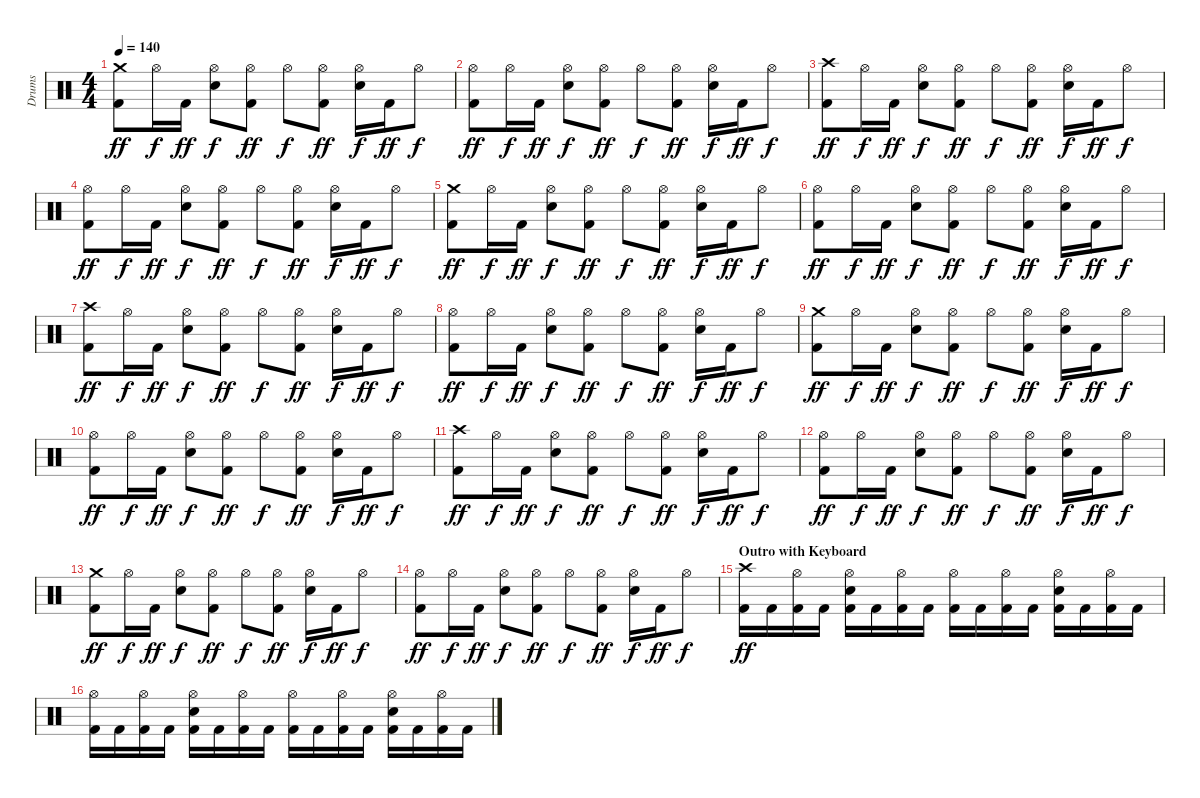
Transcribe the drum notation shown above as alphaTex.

\track ("Drums" "Drums") {instrument percussion}
\staff {score}
\articulation defaults
\ts (4 4)
\tempo 140
\clef neutral
\ks c
("Crash medium (hit)" "Kick (hit) 2").8{dy ff} "Hi-Hat (open)".16{dy f} "Kick (hit) 2".16{dy ff} ("Hi-Hat (open)" "Electric Snare (hit)").8{dy f} ("Hi-Hat (open)" "Kick (hit) 2").8{dy ff} "Hi-Hat (open)".8{dy f} ("Hi-Hat (open)" "Kick (hit) 2").8{dy ff} ("Hi-Hat (open)" "Electric Snare (hit)").16{dy f} "Kick (hit) 2".16{dy ff} "Hi-Hat (open)".8{dy f} |
("Hi-Hat (open)" "Kick (hit) 2").8{dy ff} "Hi-Hat (open)".16{dy f} "Kick (hit) 2".16{dy ff} ("Hi-Hat (open)" "Electric Snare (hit)").8{dy f} ("Hi-Hat (open)" "Kick (hit) 2").8{dy ff} "Hi-Hat (open)".8{dy f} ("Hi-Hat (open)" "Kick (hit) 2").8{dy ff} ("Hi-Hat (open)" "Electric Snare (hit)").16{dy f} "Kick (hit) 2".16{dy ff} "Hi-Hat (open)".8{dy f} |
("Crash high (hit)" "Kick (hit) 2").8{dy ff} "Hi-Hat (open)".16{dy f} "Kick (hit) 2".16{dy ff} ("Hi-Hat (open)" "Electric Snare (hit)").8{dy f} ("Hi-Hat (open)" "Kick (hit) 2").8{dy ff} "Hi-Hat (open)".8{dy f} ("Hi-Hat (open)" "Kick (hit) 2").8{dy ff} ("Hi-Hat (open)" "Electric Snare (hit)").16{dy f} "Kick (hit) 2".16{dy ff} "Hi-Hat (open)".8{dy f} |
("Hi-Hat (open)" "Kick (hit) 2").8{dy ff} "Hi-Hat (open)".16{dy f} "Kick (hit) 2".16{dy ff} ("Hi-Hat (open)" "Electric Snare (hit)").8{dy f} ("Hi-Hat (open)" "Kick (hit) 2").8{dy ff} "Hi-Hat (open)".8{dy f} ("Hi-Hat (open)" "Kick (hit) 2").8{dy ff} ("Hi-Hat (open)" "Electric Snare (hit)").16{dy f} "Kick (hit) 2".16{dy ff} "Hi-Hat (open)".8{dy f} |
("Crash medium (hit)" "Kick (hit) 2").8{dy ff} "Hi-Hat (open)".16{dy f} "Kick (hit) 2".16{dy ff} ("Hi-Hat (open)" "Electric Snare (hit)").8{dy f} ("Hi-Hat (open)" "Kick (hit) 2").8{dy ff} "Hi-Hat (open)".8{dy f} ("Hi-Hat (open)" "Kick (hit) 2").8{dy ff} ("Hi-Hat (open)" "Electric Snare (hit)").16{dy f} "Kick (hit) 2".16{dy ff} "Hi-Hat (open)".8{dy f} |
("Hi-Hat (open)" "Kick (hit) 2").8{dy ff} "Hi-Hat (open)".16{dy f} "Kick (hit) 2".16{dy ff} ("Hi-Hat (open)" "Electric Snare (hit)").8{dy f} ("Hi-Hat (open)" "Kick (hit) 2").8{dy ff} "Hi-Hat (open)".8{dy f} ("Hi-Hat (open)" "Kick (hit) 2").8{dy ff} ("Hi-Hat (open)" "Electric Snare (hit)").16{dy f} "Kick (hit) 2".16{dy ff} "Hi-Hat (open)".8{dy f} |
("Crash high (hit)" "Kick (hit) 2").8{dy ff} "Hi-Hat (open)".16{dy f} "Kick (hit) 2".16{dy ff} ("Hi-Hat (open)" "Electric Snare (hit)").8{dy f} ("Hi-Hat (open)" "Kick (hit) 2").8{dy ff} "Hi-Hat (open)".8{dy f} ("Hi-Hat (open)" "Kick (hit) 2").8{dy ff} ("Hi-Hat (open)" "Electric Snare (hit)").16{dy f} "Kick (hit) 2".16{dy ff} "Hi-Hat (open)".8{dy f} |
("Hi-Hat (open)" "Kick (hit) 2").8{dy ff} "Hi-Hat (open)".16{dy f} "Kick (hit) 2".16{dy ff} ("Hi-Hat (open)" "Electric Snare (hit)").8{dy f} ("Hi-Hat (open)" "Kick (hit) 2").8{dy ff} "Hi-Hat (open)".8{dy f} ("Hi-Hat (open)" "Kick (hit) 2").8{dy ff} ("Hi-Hat (open)" "Electric Snare (hit)").16{dy f} "Kick (hit) 2".16{dy ff} "Hi-Hat (open)".8{dy f} |
("Crash medium (hit)" "Kick (hit) 2").8{dy ff} "Hi-Hat (open)".16{dy f} "Kick (hit) 2".16{dy ff} ("Hi-Hat (open)" "Electric Snare (hit)").8{dy f} ("Hi-Hat (open)" "Kick (hit) 2").8{dy ff} "Hi-Hat (open)".8{dy f} ("Hi-Hat (open)" "Kick (hit) 2").8{dy ff} ("Hi-Hat (open)" "Electric Snare (hit)").16{dy f} "Kick (hit) 2".16{dy ff} "Hi-Hat (open)".8{dy f} |
("Hi-Hat (open)" "Kick (hit) 2").8{dy ff} "Hi-Hat (open)".16{dy f} "Kick (hit) 2".16{dy ff} ("Hi-Hat (open)" "Electric Snare (hit)").8{dy f} ("Hi-Hat (open)" "Kick (hit) 2").8{dy ff} "Hi-Hat (open)".8{dy f} ("Hi-Hat (open)" "Kick (hit) 2").8{dy ff} ("Hi-Hat (open)" "Electric Snare (hit)").16{dy f} "Kick (hit) 2".16{dy ff} "Hi-Hat (open)".8{dy f} |
("Crash high (hit)" "Kick (hit) 2").8{dy ff} "Hi-Hat (open)".16{dy f} "Kick (hit) 2".16{dy ff} ("Hi-Hat (open)" "Electric Snare (hit)").8{dy f} ("Hi-Hat (open)" "Kick (hit) 2").8{dy ff} "Hi-Hat (open)".8{dy f} ("Hi-Hat (open)" "Kick (hit) 2").8{dy ff} ("Hi-Hat (open)" "Electric Snare (hit)").16{dy f} "Kick (hit) 2".16{dy ff} "Hi-Hat (open)".8{dy f} |
("Hi-Hat (open)" "Kick (hit) 2").8{dy ff} "Hi-Hat (open)".16{dy f} "Kick (hit) 2".16{dy ff} ("Hi-Hat (open)" "Electric Snare (hit)").8{dy f} ("Hi-Hat (open)" "Kick (hit) 2").8{dy ff} "Hi-Hat (open)".8{dy f} ("Hi-Hat (open)" "Kick (hit) 2").8{dy ff} ("Hi-Hat (open)" "Electric Snare (hit)").16{dy f} "Kick (hit) 2".16{dy ff} "Hi-Hat (open)".8{dy f} |
("Crash medium (hit)" "Kick (hit) 2").8{dy ff} "Hi-Hat (open)".16{dy f} "Kick (hit) 2".16{dy ff} ("Hi-Hat (open)" "Electric Snare (hit)").8{dy f} ("Hi-Hat (open)" "Kick (hit) 2").8{dy ff} "Hi-Hat (open)".8{dy f} ("Hi-Hat (open)" "Kick (hit) 2").8{dy ff} ("Hi-Hat (open)" "Electric Snare (hit)").16{dy f} "Kick (hit) 2".16{dy ff} "Hi-Hat (open)".8{dy f} |
("Hi-Hat (open)" "Kick (hit) 2").8{dy ff} "Hi-Hat (open)".16{dy f} "Kick (hit) 2".16{dy ff} ("Hi-Hat (open)" "Electric Snare (hit)").8{dy f} ("Hi-Hat (open)" "Kick (hit) 2").8{dy ff} "Hi-Hat (open)".8{dy f} ("Hi-Hat (open)" "Kick (hit) 2").8{dy ff} ("Hi-Hat (open)" "Electric Snare (hit)").16{dy f} "Kick (hit) 2".16{dy ff} "Hi-Hat (open)".8{dy f} |
\section ("" "Outro with Keyboard")
("Crash high (hit)" "Kick (hit) 2").16{dy ff} "Kick (hit) 2".16 ("Hi-Hat (open)" "Kick (hit) 2").16 "Kick (hit) 2".16 ("Hi-Hat (open)" "Electric Snare (hit)" "Kick (hit) 2").16 "Kick (hit) 2".16 ("Hi-Hat (open)" "Kick (hit) 2").16 "Kick (hit) 2".16 ("Hi-Hat (open)" "Kick (hit) 2").16 "Kick (hit) 2".16 ("Hi-Hat (open)" "Kick (hit) 2").16 "Kick (hit) 2".16 ("Hi-Hat (open)" "Electric Snare (hit)" "Kick (hit) 2").16 "Kick (hit) 2".16 ("Hi-Hat (open)" "Kick (hit) 2").16 "Kick (hit) 2".16 |
("Hi-Hat (open)" "Kick (hit) 2").16 "Kick (hit) 2".16 ("Hi-Hat (open)" "Kick (hit) 2").16 "Kick (hit) 2".16 ("Hi-Hat (open)" "Electric Snare (hit)" "Kick (hit) 2").16 "Kick (hit) 2".16 ("Hi-Hat (open)" "Kick (hit) 2").16 "Kick (hit) 2".16 ("Hi-Hat (open)" "Kick (hit) 2").16 "Kick (hit) 2".16 ("Hi-Hat (open)" "Kick (hit) 2").16 "Kick (hit) 2".16 ("Hi-Hat (open)" "Electric Snare (hit)" "Kick (hit) 2").16 "Kick (hit) 2".16 ("Hi-Hat (open)" "Kick (hit) 2").16 "Kick (hit) 2".16
